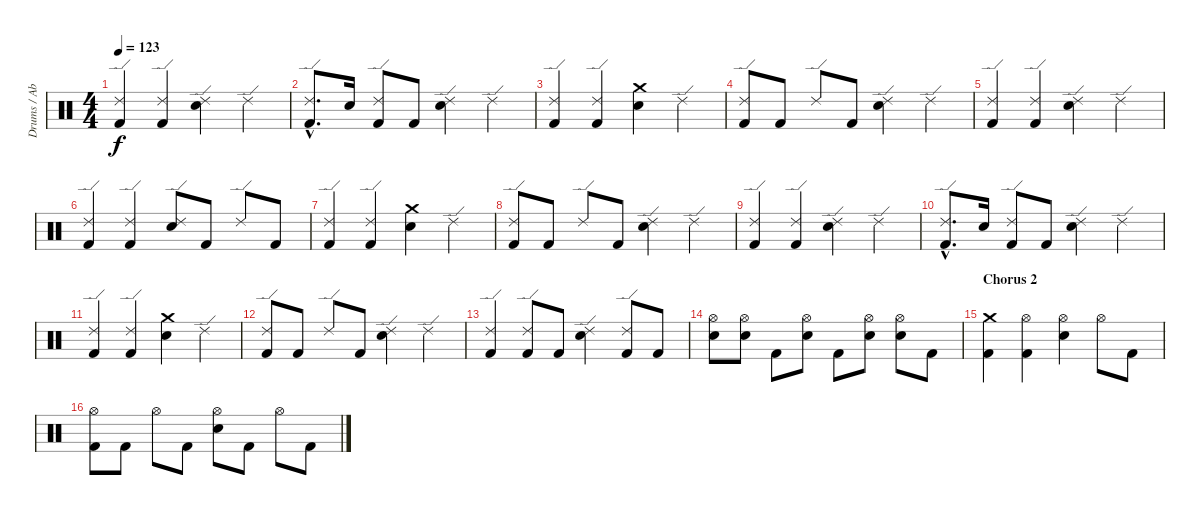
\track ("Drums / Abe Cunningham" "Drums / Ab") {instrument percussion}
\staff {score}
\articulation defaults
\ts (4 4)
\tempo 123
\clef neutral
\ks c
("Ride (edge) 2" "Kick (hit) 2").4{dy f} ("Ride (edge) 2" "Kick (hit) 2").4 ("Ride (edge) 2" "Electric Snare (hit)").4 "Ride (edge) 2".4 |
("Ride (edge) 2"{hac} "Kick (hit) 2"{hac}).8{d} "Electric Snare (hit)".16 ("Ride (edge) 2" "Kick (hit) 2").8 "Kick (hit) 2".8 ("Ride (edge) 2" "Electric Snare (hit)").4 "Ride (edge) 2".4 |
("Ride (edge) 2" "Kick (hit) 2").4 ("Ride (edge) 2" "Kick (hit) 2").4 ("Crash medium (hit)" "Electric Snare (hit)").4 "Ride (edge) 2".4 |
("Ride (edge) 2" "Kick (hit) 2").8 "Kick (hit) 2".8 "Ride (edge) 2".8 "Kick (hit) 2".8 ("Ride (edge) 2" "Electric Snare (hit)").4 "Ride (edge) 2".4 |
("Ride (edge) 2" "Kick (hit) 2").4 ("Ride (edge) 2" "Kick (hit) 2").4 ("Ride (edge) 2" "Electric Snare (hit)").4 "Ride (edge) 2".4 |
("Ride (edge) 2" "Kick (hit) 2").4 ("Ride (edge) 2" "Kick (hit) 2").4 ("Ride (edge) 2" "Electric Snare (hit)").8 "Kick (hit) 2".8 "Ride (edge) 2".8 "Kick (hit) 2".8 |
("Ride (edge) 2" "Kick (hit) 2").4 ("Ride (edge) 2" "Kick (hit) 2").4 ("Crash medium (hit)" "Electric Snare (hit)").4 "Ride (edge) 2".4 |
("Ride (edge) 2" "Kick (hit) 2").8 "Kick (hit) 2".8 "Ride (edge) 2".8 "Kick (hit) 2".8 ("Ride (edge) 2" "Electric Snare (hit)").4 "Ride (edge) 2".4 |
("Ride (edge) 2" "Kick (hit) 2").4 ("Ride (edge) 2" "Kick (hit) 2").4 ("Ride (edge) 2" "Electric Snare (hit)").4 "Ride (edge) 2".4 |
("Ride (edge) 2"{hac} "Kick (hit) 2"{hac}).8{d} "Electric Snare (hit)".16 ("Ride (edge) 2" "Kick (hit) 2").8 "Kick (hit) 2".8 ("Ride (edge) 2" "Electric Snare (hit)").4 "Ride (edge) 2".4 |
("Ride (edge) 2" "Kick (hit) 2").4 ("Ride (edge) 2" "Kick (hit) 2").4 ("Crash medium (hit)" "Electric Snare (hit)").4 "Ride (edge) 2".4 |
("Ride (edge) 2" "Kick (hit) 2").8 "Kick (hit) 2".8 "Ride (edge) 2".8 "Kick (hit) 2".8 ("Ride (edge) 2" "Electric Snare (hit)").4 "Ride (edge) 2".4 |
("Ride (edge) 2" "Kick (hit) 2").4 ("Ride (edge) 2" "Kick (hit) 2").8 "Kick (hit) 2".8 ("Ride (edge) 2" "Electric Snare (hit)").4 ("Ride (edge) 2" "Kick (hit) 2").8 "Kick (hit) 2".8 |
("Hi-Hat (open)" "Electric Snare (hit)").8 ("Hi-Hat (open)" "Electric Snare (hit)").8 "Kick (hit) 2".8 ("Hi-Hat (open)" "Electric Snare (hit)").8 "Kick (hit) 2".8 ("Hi-Hat (open)" "Electric Snare (hit)").8 ("Hi-Hat (open)" "Electric Snare (hit)").8 "Kick (hit) 2".8 |
\section ("" "Chorus 2")
("Crash medium (hit)" "Kick (hit) 2").4 ("Hi-Hat (open)" "Kick (hit) 2").4 ("Hi-Hat (open)" "Electric Snare (hit)").4 "Hi-Hat (open)".8 "Kick (hit) 2".8 |
("Hi-Hat (open)" "Kick (hit) 2").8 "Kick (hit) 2".8 "Hi-Hat (open)".8 "Kick (hit) 2".8 ("Hi-Hat (open)" "Electric Snare (hit)").8 "Kick (hit) 2".8 "Hi-Hat (open)".8 "Kick (hit) 2".8
